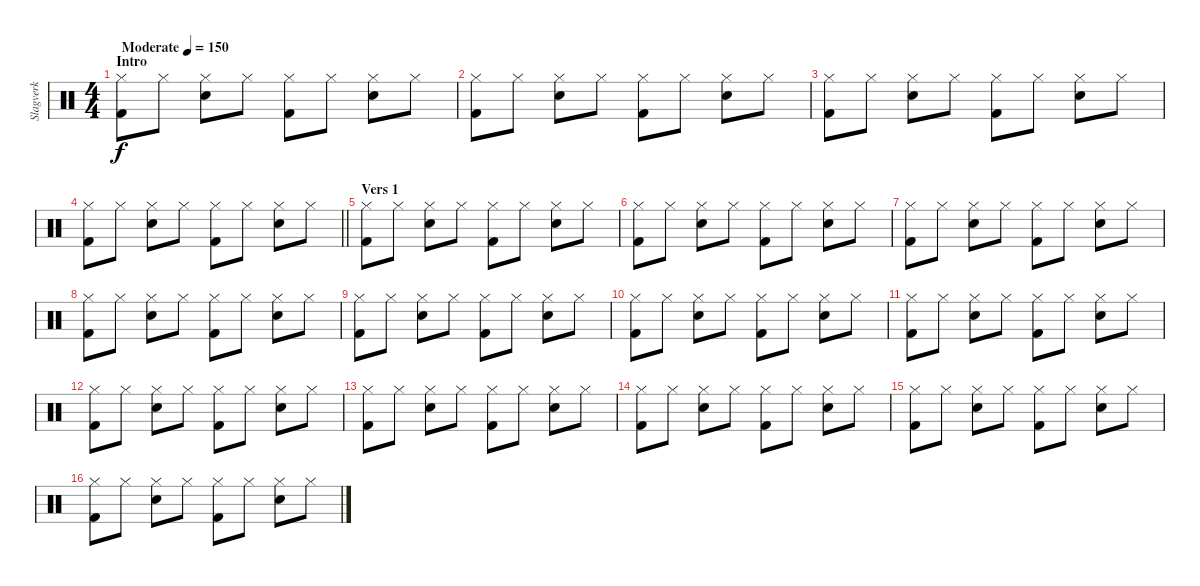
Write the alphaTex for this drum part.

\track ("Slagverk" "Slagverk") {instrument percussion}
\staff {score}
\articulation defaults
\ts (4 4)
\section ("" "Intro")
\tempo (150 "Moderate")
\clef neutral
\ks c
("Kick (hit) 2" "Hi-Hat (closed)").8{dy f} "Hi-Hat (closed)".8 ("Snare (hit) 2" "Hi-Hat (closed)").8 "Hi-Hat (closed)".8 ("Kick (hit) 2" "Hi-Hat (closed)").8 "Hi-Hat (closed)".8 ("Snare (hit) 2" "Hi-Hat (closed)").8 "Hi-Hat (closed)".8 |
("Kick (hit) 2" "Hi-Hat (closed)").8 "Hi-Hat (closed)".8 ("Snare (hit) 2" "Hi-Hat (closed)").8 "Hi-Hat (closed)".8 ("Kick (hit) 2" "Hi-Hat (closed)").8 "Hi-Hat (closed)".8 ("Snare (hit) 2" "Hi-Hat (closed)").8 "Hi-Hat (closed)".8 |
("Kick (hit) 2" "Hi-Hat (closed)").8 "Hi-Hat (closed)".8 ("Snare (hit) 2" "Hi-Hat (closed)").8 "Hi-Hat (closed)".8 ("Kick (hit) 2" "Hi-Hat (closed)").8 "Hi-Hat (closed)".8 ("Snare (hit) 2" "Hi-Hat (closed)").8 "Hi-Hat (closed)".8 |
\barLineRight lightlight
("Kick (hit) 2" "Hi-Hat (closed)").8 "Hi-Hat (closed)".8 ("Snare (hit) 2" "Hi-Hat (closed)").8 "Hi-Hat (closed)".8 ("Kick (hit) 2" "Hi-Hat (closed)").8 "Hi-Hat (closed)".8 ("Snare (hit) 2" "Hi-Hat (closed)").8 "Hi-Hat (closed)".8 |
\section ("" "Vers 1")
("Kick (hit) 2" "Hi-Hat (closed)").8 "Hi-Hat (closed)".8 ("Snare (hit) 2" "Hi-Hat (closed)").8 "Hi-Hat (closed)".8 ("Kick (hit) 2" "Hi-Hat (closed)").8 "Hi-Hat (closed)".8 ("Snare (hit) 2" "Hi-Hat (closed)").8 "Hi-Hat (closed)".8 |
("Kick (hit) 2" "Hi-Hat (closed)").8 "Hi-Hat (closed)".8 ("Snare (hit) 2" "Hi-Hat (closed)").8 "Hi-Hat (closed)".8 ("Kick (hit) 2" "Hi-Hat (closed)").8 "Hi-Hat (closed)".8 ("Snare (hit) 2" "Hi-Hat (closed)").8 "Hi-Hat (closed)".8 |
("Kick (hit) 2" "Hi-Hat (closed)").8 "Hi-Hat (closed)".8 ("Snare (hit) 2" "Hi-Hat (closed)").8 "Hi-Hat (closed)".8 ("Kick (hit) 2" "Hi-Hat (closed)").8 "Hi-Hat (closed)".8 ("Snare (hit) 2" "Hi-Hat (closed)").8 "Hi-Hat (closed)".8 |
("Kick (hit) 2" "Hi-Hat (closed)").8 "Hi-Hat (closed)".8 ("Snare (hit) 2" "Hi-Hat (closed)").8 "Hi-Hat (closed)".8 ("Kick (hit) 2" "Hi-Hat (closed)").8 "Hi-Hat (closed)".8 ("Snare (hit) 2" "Hi-Hat (closed)").8 "Hi-Hat (closed)".8 |
("Kick (hit) 2" "Hi-Hat (closed)").8 "Hi-Hat (closed)".8 ("Snare (hit) 2" "Hi-Hat (closed)").8 "Hi-Hat (closed)".8 ("Kick (hit) 2" "Hi-Hat (closed)").8 "Hi-Hat (closed)".8 ("Snare (hit) 2" "Hi-Hat (closed)").8 "Hi-Hat (closed)".8 |
("Kick (hit) 2" "Hi-Hat (closed)").8 "Hi-Hat (closed)".8 ("Snare (hit) 2" "Hi-Hat (closed)").8 "Hi-Hat (closed)".8 ("Kick (hit) 2" "Hi-Hat (closed)").8 "Hi-Hat (closed)".8 ("Snare (hit) 2" "Hi-Hat (closed)").8 "Hi-Hat (closed)".8 |
("Kick (hit) 2" "Hi-Hat (closed)").8 "Hi-Hat (closed)".8 ("Snare (hit) 2" "Hi-Hat (closed)").8 "Hi-Hat (closed)".8 ("Kick (hit) 2" "Hi-Hat (closed)").8 "Hi-Hat (closed)".8 ("Snare (hit) 2" "Hi-Hat (closed)").8 "Hi-Hat (closed)".8 |
("Kick (hit) 2" "Hi-Hat (closed)").8 "Hi-Hat (closed)".8 ("Snare (hit) 2" "Hi-Hat (closed)").8 "Hi-Hat (closed)".8 ("Kick (hit) 2" "Hi-Hat (closed)").8 "Hi-Hat (closed)".8 ("Snare (hit) 2" "Hi-Hat (closed)").8 "Hi-Hat (closed)".8 |
("Kick (hit) 2" "Hi-Hat (closed)").8 "Hi-Hat (closed)".8 ("Snare (hit) 2" "Hi-Hat (closed)").8 "Hi-Hat (closed)".8 ("Kick (hit) 2" "Hi-Hat (closed)").8 "Hi-Hat (closed)".8 ("Snare (hit) 2" "Hi-Hat (closed)").8 "Hi-Hat (closed)".8 |
("Kick (hit) 2" "Hi-Hat (closed)").8 "Hi-Hat (closed)".8 ("Snare (hit) 2" "Hi-Hat (closed)").8 "Hi-Hat (closed)".8 ("Kick (hit) 2" "Hi-Hat (closed)").8 "Hi-Hat (closed)".8 ("Snare (hit) 2" "Hi-Hat (closed)").8 "Hi-Hat (closed)".8 |
("Kick (hit) 2" "Hi-Hat (closed)").8 "Hi-Hat (closed)".8 ("Snare (hit) 2" "Hi-Hat (closed)").8 "Hi-Hat (closed)".8 ("Kick (hit) 2" "Hi-Hat (closed)").8 "Hi-Hat (closed)".8 ("Snare (hit) 2" "Hi-Hat (closed)").8 "Hi-Hat (closed)".8 |
("Kick (hit) 2" "Hi-Hat (closed)").8 "Hi-Hat (closed)".8 ("Snare (hit) 2" "Hi-Hat (closed)").8 "Hi-Hat (closed)".8 ("Kick (hit) 2" "Hi-Hat (closed)").8 "Hi-Hat (closed)".8 ("Snare (hit) 2" "Hi-Hat (closed)").8 "Hi-Hat (closed)".8
